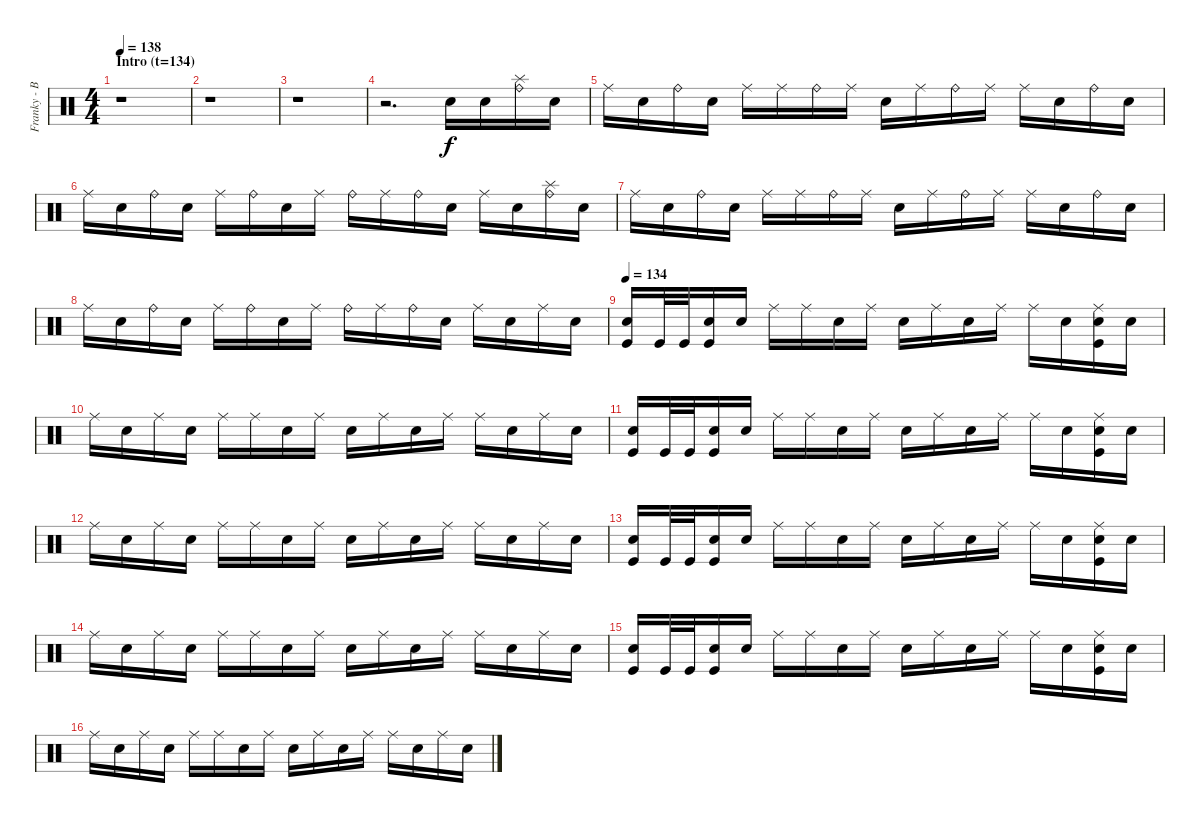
\track ("Franky - Batterie" "Franky - B") {instrument percussion}
\staff {score}
\articulation defaults
\ts (4 4)
\section ("" "Intro (t=134)")
\tempo 138
\tempo 134
\tempo 138
\clef neutral
\ks c
r.1{dy f volume 16} |
r.1 |
r.1 |
r.2{d} "Snare (hit)".16 "Snare (hit)".16 ("Splash (hit)" "Ride (bell)").16 "Snare (hit)".16 |
"Ride (middle)".16 "Snare (hit)".16 "Ride (bell)".16 "Snare (hit)".16 "Ride (middle)".16 "Ride (middle)".16 "Ride (bell)".16 "Ride (middle)".16 "Snare (hit)".16 "Ride (middle)".16 "Ride (bell)".16 "Ride (middle)".16 "Ride (middle)".16 "Snare (hit)".16 "Ride (bell)".16 "Snare (hit)".16 |
"Ride (middle)".16 "Snare (hit)".16 "Ride (bell)".16 "Snare (hit)".16 "Ride (middle)".16 "Ride (bell)".16 "Snare (hit)".16 "Ride (middle)".16 "Ride (bell)".16 "Ride (middle)".16 "Ride (bell)".16 "Snare (hit)".16 "Ride (middle)".16 "Snare (hit)".16 ("Splash (hit)" "Ride (bell)").16 "Snare (hit)".16 |
"Ride (middle)".16 "Snare (hit)".16 "Ride (bell)".16 "Snare (hit)".16 "Ride (middle)".16 "Ride (middle)".16 "Ride (bell)".16 "Ride (middle)".16 "Snare (hit)".16 "Ride (middle)".16 "Ride (bell)".16 "Ride (middle)".16 "Ride (middle)".16 "Snare (hit)".16 "Ride (bell)".16 "Snare (hit)".16 |
"Ride (middle)".16 "Snare (hit)".16 "Ride (bell)".16 "Snare (hit)".16 "Ride (middle)".16 "Ride (bell)".16 "Snare (hit)".16 "Ride (middle)".16 "Ride (bell)".16 "Ride (middle)".16 "Ride (bell)".16 "Snare (hit)".16 "Ride (middle)".16 "Snare (hit)".16 "Ride (middle)".16 "Snare (hit)".16 |
\section ("" "")
\tempo 134
("Electric Snare (hit)" "Kick (hit)").16{volume 16 balance 8} "Kick (hit)".32 "Kick (hit)".32 ("Electric Snare (hit)" "Kick (hit)").16 "Snare (hit)".16 "Ride (middle)".16 "Ride (middle)".16 "Snare (hit)".16 "Ride (middle)".16 "Snare (hit)".16 "Ride (middle)".16 "Snare (hit)".16 "Ride (middle)".16 "Ride (middle)".16 "Snare (hit)".16 ("Ride (middle)" "Electric Snare (hit)" "Kick (hit)").16 "Snare (hit)".16 |
"Ride (middle)".16 "Snare (hit)".16 "Ride (middle)".16 "Snare (hit)".16 "Ride (middle)".16 "Ride (middle)".16 "Snare (hit)".16 "Ride (middle)".16 "Snare (hit)".16 "Ride (middle)".16 "Snare (hit)".16 "Ride (middle)".16 "Ride (middle)".16 "Snare (hit)".16 "Ride (middle)".16 "Snare (hit)".16 |
("Electric Snare (hit)" "Kick (hit)").16 "Kick (hit)".32 "Kick (hit)".32 ("Electric Snare (hit)" "Kick (hit)").16 "Snare (hit)".16 "Ride (middle)".16 "Ride (middle)".16 "Snare (hit)".16 "Ride (middle)".16 "Snare (hit)".16 "Ride (middle)".16 "Snare (hit)".16 "Ride (middle)".16 "Ride (middle)".16 "Snare (hit)".16 ("Ride (middle)" "Electric Snare (hit)" "Kick (hit)").16 "Snare (hit)".16 |
"Ride (middle)".16 "Snare (hit)".16 "Ride (middle)".16 "Snare (hit)".16 "Ride (middle)".16 "Ride (middle)".16 "Snare (hit)".16 "Ride (middle)".16 "Snare (hit)".16 "Ride (middle)".16 "Snare (hit)".16 "Ride (middle)".16 "Ride (middle)".16 "Snare (hit)".16 "Ride (middle)".16 "Snare (hit)".16 |
("Electric Snare (hit)" "Kick (hit)").16 "Kick (hit)".32 "Kick (hit)".32 ("Electric Snare (hit)" "Kick (hit)").16 "Snare (hit)".16 "Ride (middle)".16 "Ride (middle)".16 "Snare (hit)".16 "Ride (middle)".16 "Snare (hit)".16 "Ride (middle)".16 "Snare (hit)".16 "Ride (middle)".16 "Ride (middle)".16 "Snare (hit)".16 ("Ride (middle)" "Electric Snare (hit)" "Kick (hit)").16 "Snare (hit)".16 |
"Ride (middle)".16 "Snare (hit)".16 "Ride (middle)".16 "Snare (hit)".16 "Ride (middle)".16 "Ride (middle)".16 "Snare (hit)".16 "Ride (middle)".16 "Snare (hit)".16 "Ride (middle)".16 "Snare (hit)".16 "Ride (middle)".16 "Ride (middle)".16 "Snare (hit)".16 "Ride (middle)".16 "Snare (hit)".16 |
("Electric Snare (hit)" "Kick (hit)").16 "Kick (hit)".32 "Kick (hit)".32 ("Electric Snare (hit)" "Kick (hit)").16 "Snare (hit)".16 "Ride (middle)".16 "Ride (middle)".16 "Snare (hit)".16 "Ride (middle)".16 "Snare (hit)".16 "Ride (middle)".16 "Snare (hit)".16 "Ride (middle)".16 "Ride (middle)".16 "Snare (hit)".16 ("Ride (middle)" "Electric Snare (hit)" "Kick (hit)").16 "Snare (hit)".16 |
"Ride (middle)".16 "Snare (hit)".16 "Ride (middle)".16 "Snare (hit)".16 "Ride (middle)".16 "Ride (middle)".16 "Snare (hit)".16 "Ride (middle)".16 "Snare (hit)".16 "Ride (middle)".16 "Snare (hit)".16 "Ride (middle)".16 "Ride (middle)".16 "Snare (hit)".16 "Ride (middle)".16 "Snare (hit)".16
